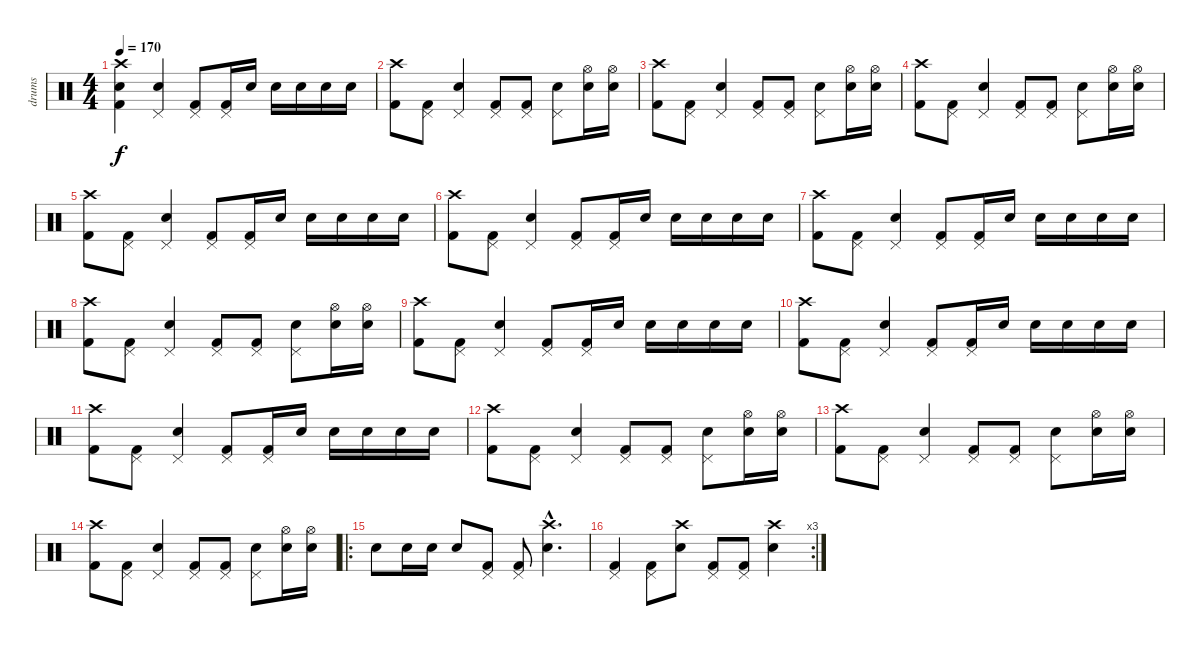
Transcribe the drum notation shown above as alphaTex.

\track ("drums" "drums") {instrument percussion}
\staff {score}
\articulation defaults
\ts (4 4)
\tempo 170
\clef neutral
\ks c
("Crash high (hit)" "Kick (hit) 2" "Electric Snare (hit)").4{dy f} ("Pedal Hi-Hat (hit)" "Electric Snare (hit)").4 ("Pedal Hi-Hat (hit)" "Kick (hit) 2").8 ("Pedal Hi-Hat (hit)" "Kick (hit) 2").16 "Electric Snare (hit)".16 "Electric Snare (hit)".16 "Electric Snare (hit)".16 "Electric Snare (hit)".16 "Electric Snare (hit)".16 |
("Crash high (hit)" "Kick (hit) 2").8 ("Pedal Hi-Hat (hit)" "Kick (hit) 2").8 ("Pedal Hi-Hat (hit)" "Electric Snare (hit)").4 ("Pedal Hi-Hat (hit)" "Kick (hit) 2").8 ("Pedal Hi-Hat (hit)" "Kick (hit) 2").8 ("Pedal Hi-Hat (hit)" "Electric Snare (hit)").8 ("Hi-Hat (open)" "Electric Snare (hit)").16 ("Hi-Hat (open)" "Electric Snare (hit)").16 |
("Crash high (hit)" "Kick (hit) 2").8 ("Pedal Hi-Hat (hit)" "Kick (hit) 2").8 ("Pedal Hi-Hat (hit)" "Electric Snare (hit)").4 ("Pedal Hi-Hat (hit)" "Kick (hit) 2").8 ("Pedal Hi-Hat (hit)" "Kick (hit) 2").8 ("Pedal Hi-Hat (hit)" "Electric Snare (hit)").8 ("Hi-Hat (open)" "Electric Snare (hit)").16 ("Hi-Hat (open)" "Electric Snare (hit)").16 |
("Crash high (hit)" "Kick (hit) 2").8 ("Pedal Hi-Hat (hit)" "Kick (hit) 2").8 ("Pedal Hi-Hat (hit)" "Electric Snare (hit)").4 ("Pedal Hi-Hat (hit)" "Kick (hit) 2").8 ("Pedal Hi-Hat (hit)" "Kick (hit) 2").8 ("Pedal Hi-Hat (hit)" "Electric Snare (hit)").8 ("Hi-Hat (open)" "Electric Snare (hit)").16 ("Hi-Hat (open)" "Electric Snare (hit)").16 |
("Crash high (hit)" "Kick (hit) 2").8 ("Pedal Hi-Hat (hit)" "Kick (hit) 2").8 ("Pedal Hi-Hat (hit)" "Electric Snare (hit)").4 ("Pedal Hi-Hat (hit)" "Kick (hit) 2").8 ("Pedal Hi-Hat (hit)" "Kick (hit) 2").16 "Electric Snare (hit)".16 "Electric Snare (hit)".16 "Electric Snare (hit)".16 "Electric Snare (hit)".16 "Electric Snare (hit)".16 |
("Crash high (hit)" "Kick (hit) 2").8 ("Pedal Hi-Hat (hit)" "Kick (hit) 2").8 ("Pedal Hi-Hat (hit)" "Electric Snare (hit)").4 ("Pedal Hi-Hat (hit)" "Kick (hit) 2").8 ("Pedal Hi-Hat (hit)" "Kick (hit) 2").16 "Electric Snare (hit)".16 "Electric Snare (hit)".16 "Electric Snare (hit)".16 "Electric Snare (hit)".16 "Electric Snare (hit)".16 |
("Crash high (hit)" "Kick (hit) 2").8 ("Pedal Hi-Hat (hit)" "Kick (hit) 2").8 ("Pedal Hi-Hat (hit)" "Electric Snare (hit)").4 ("Pedal Hi-Hat (hit)" "Kick (hit) 2").8 ("Pedal Hi-Hat (hit)" "Kick (hit) 2").16 "Electric Snare (hit)".16 "Electric Snare (hit)".16 "Electric Snare (hit)".16 "Electric Snare (hit)".16 "Electric Snare (hit)".16 |
("Crash high (hit)" "Kick (hit) 2").8 ("Pedal Hi-Hat (hit)" "Kick (hit) 2").8 ("Pedal Hi-Hat (hit)" "Electric Snare (hit)").4 ("Pedal Hi-Hat (hit)" "Kick (hit) 2").8 ("Pedal Hi-Hat (hit)" "Kick (hit) 2").8 ("Pedal Hi-Hat (hit)" "Electric Snare (hit)").8 ("Hi-Hat (open)" "Electric Snare (hit)").16 ("Hi-Hat (open)" "Electric Snare (hit)").16 |
("Crash high (hit)" "Kick (hit) 2").8 ("Pedal Hi-Hat (hit)" "Kick (hit) 2").8 ("Pedal Hi-Hat (hit)" "Electric Snare (hit)").4 ("Pedal Hi-Hat (hit)" "Kick (hit) 2").8 ("Pedal Hi-Hat (hit)" "Kick (hit) 2").16 "Electric Snare (hit)".16 "Electric Snare (hit)".16 "Electric Snare (hit)".16 "Electric Snare (hit)".16 "Electric Snare (hit)".16 |
("Crash high (hit)" "Kick (hit) 2").8 ("Pedal Hi-Hat (hit)" "Kick (hit) 2").8 ("Pedal Hi-Hat (hit)" "Electric Snare (hit)").4 ("Pedal Hi-Hat (hit)" "Kick (hit) 2").8 ("Pedal Hi-Hat (hit)" "Kick (hit) 2").16 "Electric Snare (hit)".16 "Electric Snare (hit)".16 "Electric Snare (hit)".16 "Electric Snare (hit)".16 "Electric Snare (hit)".16 |
("Crash high (hit)" "Kick (hit) 2").8 ("Pedal Hi-Hat (hit)" "Kick (hit) 2").8 ("Pedal Hi-Hat (hit)" "Electric Snare (hit)").4 ("Pedal Hi-Hat (hit)" "Kick (hit) 2").8 ("Pedal Hi-Hat (hit)" "Kick (hit) 2").16 "Electric Snare (hit)".16 "Electric Snare (hit)".16 "Electric Snare (hit)".16 "Electric Snare (hit)".16 "Electric Snare (hit)".16 |
("Crash high (hit)" "Kick (hit) 2").8 ("Pedal Hi-Hat (hit)" "Kick (hit) 2").8 ("Pedal Hi-Hat (hit)" "Electric Snare (hit)").4 ("Pedal Hi-Hat (hit)" "Kick (hit) 2").8 ("Pedal Hi-Hat (hit)" "Kick (hit) 2").8 ("Pedal Hi-Hat (hit)" "Electric Snare (hit)").8 ("Hi-Hat (open)" "Electric Snare (hit)").16 ("Hi-Hat (open)" "Electric Snare (hit)").16 |
("Crash high (hit)" "Kick (hit) 2").8 ("Pedal Hi-Hat (hit)" "Kick (hit) 2").8 ("Pedal Hi-Hat (hit)" "Electric Snare (hit)").4 ("Pedal Hi-Hat (hit)" "Kick (hit) 2").8 ("Pedal Hi-Hat (hit)" "Kick (hit) 2").8 ("Pedal Hi-Hat (hit)" "Electric Snare (hit)").8 ("Hi-Hat (open)" "Electric Snare (hit)").16 ("Hi-Hat (open)" "Electric Snare (hit)").16 |
("Crash high (hit)" "Kick (hit) 2").8 ("Pedal Hi-Hat (hit)" "Kick (hit) 2").8 ("Pedal Hi-Hat (hit)" "Electric Snare (hit)").4 ("Pedal Hi-Hat (hit)" "Kick (hit) 2").8 ("Pedal Hi-Hat (hit)" "Kick (hit) 2").8 ("Pedal Hi-Hat (hit)" "Electric Snare (hit)").8 ("Hi-Hat (open)" "Electric Snare (hit)").16 ("Hi-Hat (open)" "Electric Snare (hit)").16 |
\ro "Electric Snare (hit)".8 "Electric Snare (hit)".16 "Electric Snare (hit)".16 "Electric Snare (hit)".8
("Pedal Hi-Hat (hit)" "Kick (hit) 2").8 ("Pedal Hi-Hat (hit)" "Kick (hit) 2").8 ("Crash high (hit)"{hac} "Electric Snare (hit)"{hac}).4{d} |
\rc 3
("Pedal Hi-Hat (hit)" "Kick (hit) 2").4 ("Pedal Hi-Hat (hit)" "Kick (hit) 2").8 ("Crash high (hit)" "Electric Snare (hit)").8 ("Pedal Hi-Hat (hit)" "Kick (hit) 2").8 ("Pedal Hi-Hat (hit)" "Kick (hit) 2").8 ("Crash high (hit)" "Electric Snare (hit)").4
